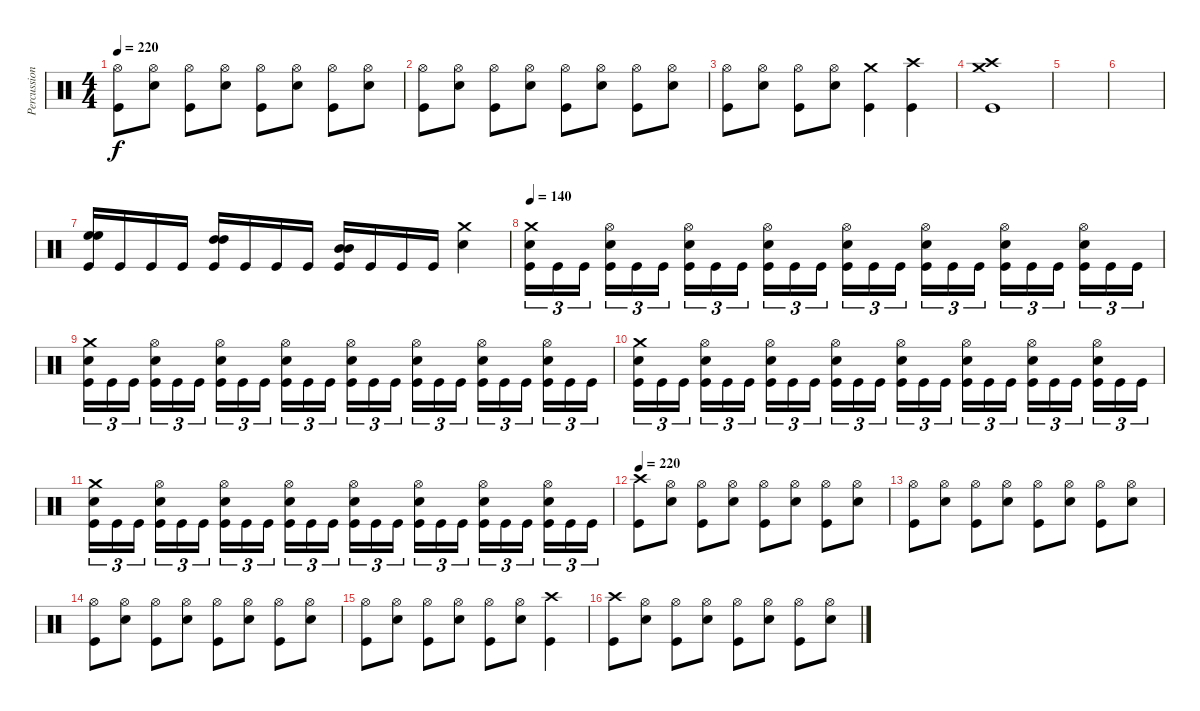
\track ("Percussion" "Percussion") {instrument percussion}
\staff {score}
\articulation defaults
\ts (4 4)
\tempo 220
\clef neutral
\ks c
("Hi-Hat (open)" "Kick (hit)").8{dy f} ("Hi-Hat (open)" "Snare (hit) 2").8 ("Hi-Hat (open)" "Kick (hit)").8 ("Hi-Hat (open)" "Snare (hit) 2").8 ("Hi-Hat (open)" "Kick (hit)").8 ("Hi-Hat (open)" "Snare (hit) 2").8 ("Hi-Hat (open)" "Kick (hit)").8 ("Hi-Hat (open)" "Snare (hit) 2").8 |
("Hi-Hat (open)" "Kick (hit)").8 ("Hi-Hat (open)" "Snare (hit) 2").8 ("Hi-Hat (open)" "Kick (hit)").8 ("Hi-Hat (open)" "Snare (hit) 2").8 ("Hi-Hat (open)" "Kick (hit)").8 ("Hi-Hat (open)" "Snare (hit) 2").8 ("Hi-Hat (open)" "Kick (hit)").8 ("Hi-Hat (open)" "Snare (hit) 2").8 |
("Hi-Hat (open)" "Kick (hit)").8 ("Hi-Hat (open)" "Snare (hit) 2").8 ("Hi-Hat (open)" "Kick (hit)").8 ("Hi-Hat (open)" "Snare (hit) 2").8 ("Crash medium (hit)" "Kick (hit)").4 ("Crash high (hit)" "Kick (hit)").4 |
("Crash high (hit)" "Crash medium (hit)" "Kick (hit)").1 |
|
|
("High Floor Tom (hit)" "High Floor Tom (hit)" "Kick (hit)").16 "Kick (hit)".16 "Kick (hit)".16 "Kick (hit)".16 ("High Tom (hit)" "High Tom (hit)" "Kick (hit)").16 "Kick (hit)".16 "Kick (hit)".16 "Kick (hit)".16 ("Mid Tom (hit)" "Mid Tom (hit)" "Kick (hit)").16 "Kick (hit)".16 "Kick (hit)".16 "Kick (hit)".16 ("Crash medium (hit)" "Snare (hit) 2").4 |
\tempo 140
("Crash medium (hit)" "Snare (hit) 2" "Kick (hit)").16{tu (3 2)} "Kick (hit)".16{tu (3 2)} "Kick (hit)".16{tu (3 2)} ("Hi-Hat (open)" "Snare (hit) 2" "Kick (hit)").16{tu (3 2)} "Kick (hit)".16{tu (3 2)} "Kick (hit)".16{tu (3 2)} ("Hi-Hat (open)" "Snare (hit) 2" "Kick (hit)").16{tu (3 2)} "Kick (hit)".16{tu (3 2)} "Kick (hit)".16{tu (3 2)} ("Hi-Hat (open)" "Snare (hit) 2" "Kick (hit)").16{tu (3 2)} "Kick (hit)".16{tu (3 2)} "Kick (hit)".16{tu (3 2)} ("Hi-Hat (open)" "Snare (hit) 2" "Kick (hit)").16{tu (3 2)} "Kick (hit)".16{tu (3 2)} "Kick (hit)".16{tu (3 2)} ("Hi-Hat (open)" "Snare (hit) 2" "Kick (hit)").16{tu (3 2)} "Kick (hit)".16{tu (3 2)} "Kick (hit)".16{tu (3 2)} ("Hi-Hat (open)" "Snare (hit) 2" "Kick (hit)").16{tu (3 2)} "Kick (hit)".16{tu (3 2)} "Kick (hit)".16{tu (3 2)} ("Hi-Hat (open)" "Snare (hit) 2" "Kick (hit)").16{tu (3 2)} "Kick (hit)".16{tu (3 2)} "Kick (hit)".16{tu (3 2)} |
("Crash medium (hit)" "Snare (hit) 2" "Kick (hit)").16{tu (3 2)} "Kick (hit)".16{tu (3 2)} "Kick (hit)".16{tu (3 2)} ("Hi-Hat (open)" "Snare (hit) 2" "Kick (hit)").16{tu (3 2)} "Kick (hit)".16{tu (3 2)} "Kick (hit)".16{tu (3 2)} ("Hi-Hat (open)" "Snare (hit) 2" "Kick (hit)").16{tu (3 2)} "Kick (hit)".16{tu (3 2)} "Kick (hit)".16{tu (3 2)} ("Hi-Hat (open)" "Snare (hit) 2" "Kick (hit)").16{tu (3 2)} "Kick (hit)".16{tu (3 2)} "Kick (hit)".16{tu (3 2)} ("Hi-Hat (open)" "Snare (hit) 2" "Kick (hit)").16{tu (3 2)} "Kick (hit)".16{tu (3 2)} "Kick (hit)".16{tu (3 2)} ("Hi-Hat (open)" "Snare (hit) 2" "Kick (hit)").16{tu (3 2)} "Kick (hit)".16{tu (3 2)} "Kick (hit)".16{tu (3 2)} ("Hi-Hat (open)" "Snare (hit) 2" "Kick (hit)").16{tu (3 2)} "Kick (hit)".16{tu (3 2)} "Kick (hit)".16{tu (3 2)} ("Hi-Hat (open)" "Snare (hit) 2" "Kick (hit)").16{tu (3 2)} "Kick (hit)".16{tu (3 2)} "Kick (hit)".16{tu (3 2)} |
("Crash medium (hit)" "Snare (hit) 2" "Kick (hit)").16{tu (3 2)} "Kick (hit)".16{tu (3 2)} "Kick (hit)".16{tu (3 2)} ("Hi-Hat (open)" "Snare (hit) 2" "Kick (hit)").16{tu (3 2)} "Kick (hit)".16{tu (3 2)} "Kick (hit)".16{tu (3 2)} ("Hi-Hat (open)" "Snare (hit) 2" "Kick (hit)").16{tu (3 2)} "Kick (hit)".16{tu (3 2)} "Kick (hit)".16{tu (3 2)} ("Hi-Hat (open)" "Snare (hit) 2" "Kick (hit)").16{tu (3 2)} "Kick (hit)".16{tu (3 2)} "Kick (hit)".16{tu (3 2)} ("Hi-Hat (open)" "Snare (hit) 2" "Kick (hit)").16{tu (3 2)} "Kick (hit)".16{tu (3 2)} "Kick (hit)".16{tu (3 2)} ("Hi-Hat (open)" "Snare (hit) 2" "Kick (hit)").16{tu (3 2)} "Kick (hit)".16{tu (3 2)} "Kick (hit)".16{tu (3 2)} ("Hi-Hat (open)" "Snare (hit) 2" "Kick (hit)").16{tu (3 2)} "Kick (hit)".16{tu (3 2)} "Kick (hit)".16{tu (3 2)} ("Hi-Hat (open)" "Snare (hit) 2" "Kick (hit)").16{tu (3 2)} "Kick (hit)".16{tu (3 2)} "Kick (hit)".16{tu (3 2)} |
("Crash medium (hit)" "Snare (hit) 2" "Kick (hit)").16{tu (3 2)} "Kick (hit)".16{tu (3 2)} "Kick (hit)".16{tu (3 2)} ("Hi-Hat (open)" "Snare (hit) 2" "Kick (hit)").16{tu (3 2)} "Kick (hit)".16{tu (3 2)} "Kick (hit)".16{tu (3 2)} ("Hi-Hat (open)" "Snare (hit) 2" "Kick (hit)").16{tu (3 2)} "Kick (hit)".16{tu (3 2)} "Kick (hit)".16{tu (3 2)} ("Hi-Hat (open)" "Snare (hit) 2" "Kick (hit)").16{tu (3 2)} "Kick (hit)".16{tu (3 2)} "Kick (hit)".16{tu (3 2)} ("Hi-Hat (open)" "Snare (hit) 2" "Kick (hit)").16{tu (3 2)} "Kick (hit)".16{tu (3 2)} "Kick (hit)".16{tu (3 2)} ("Hi-Hat (open)" "Snare (hit) 2" "Kick (hit)").16{tu (3 2)} "Kick (hit)".16{tu (3 2)} "Kick (hit)".16{tu (3 2)} ("Hi-Hat (open)" "Snare (hit) 2" "Kick (hit)").16{tu (3 2)} "Kick (hit)".16{tu (3 2)} "Kick (hit)".16{tu (3 2)} ("Hi-Hat (open)" "Snare (hit) 2" "Kick (hit)").16{tu (3 2)} "Kick (hit)".16{tu (3 2)} "Kick (hit)".16{tu (3 2)} |
\tempo 220
("Crash high (hit)" "Kick (hit)").8 ("Hi-Hat (open)" "Snare (hit) 2").8 ("Hi-Hat (open)" "Kick (hit)").8 ("Hi-Hat (open)" "Snare (hit) 2").8 ("Hi-Hat (open)" "Kick (hit)").8 ("Hi-Hat (open)" "Snare (hit) 2").8 ("Hi-Hat (open)" "Kick (hit)").8 ("Hi-Hat (open)" "Snare (hit) 2").8 |
("Hi-Hat (open)" "Kick (hit)").8 ("Hi-Hat (open)" "Snare (hit) 2").8 ("Hi-Hat (open)" "Kick (hit)").8 ("Hi-Hat (open)" "Snare (hit) 2").8 ("Hi-Hat (open)" "Kick (hit)").8 ("Hi-Hat (open)" "Snare (hit) 2").8 ("Hi-Hat (open)" "Kick (hit)").8 ("Hi-Hat (open)" "Snare (hit) 2").8 |
("Hi-Hat (open)" "Kick (hit)").8 ("Hi-Hat (open)" "Snare (hit) 2").8 ("Hi-Hat (open)" "Kick (hit)").8 ("Hi-Hat (open)" "Snare (hit) 2").8 ("Hi-Hat (open)" "Kick (hit)").8 ("Hi-Hat (open)" "Snare (hit) 2").8 ("Hi-Hat (open)" "Kick (hit)").8 ("Hi-Hat (open)" "Snare (hit) 2").8 |
("Hi-Hat (open)" "Kick (hit)").8 ("Hi-Hat (open)" "Snare (hit) 2").8 ("Hi-Hat (open)" "Kick (hit)").8 ("Hi-Hat (open)" "Snare (hit) 2").8 ("Hi-Hat (open)" "Kick (hit)").8 ("Hi-Hat (open)" "Snare (hit) 2").8 ("Crash high (hit)" "Kick (hit)").4 |
("Crash high (hit)" "Kick (hit)").8 ("Hi-Hat (open)" "Snare (hit) 2").8 ("Hi-Hat (open)" "Kick (hit)").8 ("Hi-Hat (open)" "Snare (hit) 2").8 ("Hi-Hat (open)" "Kick (hit)").8 ("Hi-Hat (open)" "Snare (hit) 2").8 ("Hi-Hat (open)" "Kick (hit)").8 ("Hi-Hat (open)" "Snare (hit) 2").8
